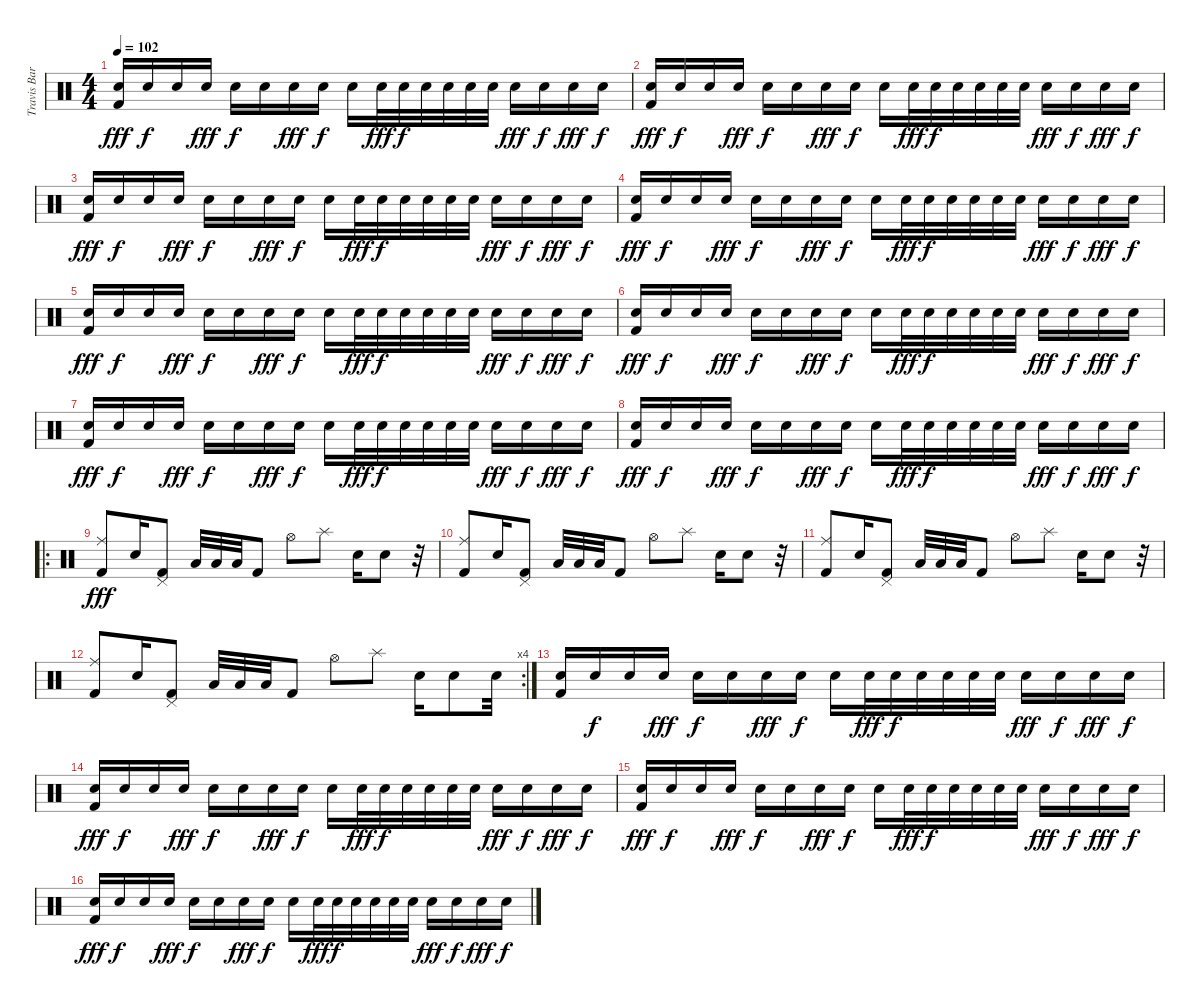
\track ("Travis Barker" "Travis Bar") {instrument percussion}
\staff {score}
\articulation defaults
\ts (4 4)
\tempo 102
\clef neutral
\ks c
("Electric Snare (hit)" "Kick (hit) 2").16{dy fff} "Electric Snare (hit)".16{dy f} "Electric Snare (hit)".16 "Electric Snare (hit)".16{dy fff} "Electric Snare (hit)".16{dy f} "Electric Snare (hit)".16 "Electric Snare (hit)".16{dy fff} "Electric Snare (hit)".16{dy f} "Electric Snare (hit)".16 "Electric Snare (hit)".32{dy fff} "Electric Snare (hit)".32{dy f} "Electric Snare (hit)".32 "Electric Snare (hit)".32 "Electric Snare (hit)".32 "Electric Snare (hit)".32 "Electric Snare (hit)".16{dy fff} "Electric Snare (hit)".16{dy f} "Electric Snare (hit)".16{dy fff} "Electric Snare (hit)".16{dy f} |
("Electric Snare (hit)" "Kick (hit) 2").16{dy fff} "Electric Snare (hit)".16{dy f} "Electric Snare (hit)".16 "Electric Snare (hit)".16{dy fff} "Electric Snare (hit)".16{dy f} "Electric Snare (hit)".16 "Electric Snare (hit)".16{dy fff} "Electric Snare (hit)".16{dy f} "Electric Snare (hit)".16 "Electric Snare (hit)".32{dy fff} "Electric Snare (hit)".32{dy f} "Electric Snare (hit)".32 "Electric Snare (hit)".32 "Electric Snare (hit)".32 "Electric Snare (hit)".32 "Electric Snare (hit)".16{dy fff} "Electric Snare (hit)".16{dy f} "Electric Snare (hit)".16{dy fff} "Electric Snare (hit)".16{dy f} |
("Electric Snare (hit)" "Kick (hit) 2").16{dy fff} "Electric Snare (hit)".16{dy f} "Electric Snare (hit)".16 "Electric Snare (hit)".16{dy fff} "Electric Snare (hit)".16{dy f} "Electric Snare (hit)".16 "Electric Snare (hit)".16{dy fff} "Electric Snare (hit)".16{dy f} "Electric Snare (hit)".16 "Electric Snare (hit)".32{dy fff} "Electric Snare (hit)".32{dy f} "Electric Snare (hit)".32 "Electric Snare (hit)".32 "Electric Snare (hit)".32 "Electric Snare (hit)".32 "Electric Snare (hit)".16{dy fff} "Electric Snare (hit)".16{dy f} "Electric Snare (hit)".16{dy fff} "Electric Snare (hit)".16{dy f} |
("Electric Snare (hit)" "Kick (hit) 2").16{dy fff} "Electric Snare (hit)".16{dy f} "Electric Snare (hit)".16 "Electric Snare (hit)".16{dy fff} "Electric Snare (hit)".16{dy f} "Electric Snare (hit)".16 "Electric Snare (hit)".16{dy fff} "Electric Snare (hit)".16{dy f} "Electric Snare (hit)".16 "Electric Snare (hit)".32{dy fff} "Electric Snare (hit)".32{dy f} "Electric Snare (hit)".32 "Electric Snare (hit)".32 "Electric Snare (hit)".32 "Electric Snare (hit)".32 "Electric Snare (hit)".16{dy fff} "Electric Snare (hit)".16{dy f} "Electric Snare (hit)".16{dy fff} "Electric Snare (hit)".16{dy f} |
("Electric Snare (hit)" "Kick (hit) 2").16{dy fff} "Electric Snare (hit)".16{dy f} "Electric Snare (hit)".16 "Electric Snare (hit)".16{dy fff} "Electric Snare (hit)".16{dy f} "Electric Snare (hit)".16 "Electric Snare (hit)".16{dy fff} "Electric Snare (hit)".16{dy f} "Electric Snare (hit)".16 "Electric Snare (hit)".32{dy fff} "Electric Snare (hit)".32{dy f} "Electric Snare (hit)".32 "Electric Snare (hit)".32 "Electric Snare (hit)".32 "Electric Snare (hit)".32 "Electric Snare (hit)".16{dy fff} "Electric Snare (hit)".16{dy f} "Electric Snare (hit)".16{dy fff} "Electric Snare (hit)".16{dy f} |
("Electric Snare (hit)" "Kick (hit) 2").16{dy fff} "Electric Snare (hit)".16{dy f} "Electric Snare (hit)".16 "Electric Snare (hit)".16{dy fff} "Electric Snare (hit)".16{dy f} "Electric Snare (hit)".16 "Electric Snare (hit)".16{dy fff} "Electric Snare (hit)".16{dy f} "Electric Snare (hit)".16 "Electric Snare (hit)".32{dy fff} "Electric Snare (hit)".32{dy f} "Electric Snare (hit)".32 "Electric Snare (hit)".32 "Electric Snare (hit)".32 "Electric Snare (hit)".32 "Electric Snare (hit)".16{dy fff} "Electric Snare (hit)".16{dy f} "Electric Snare (hit)".16{dy fff} "Electric Snare (hit)".16{dy f} |
("Electric Snare (hit)" "Kick (hit) 2").16{dy fff} "Electric Snare (hit)".16{dy f} "Electric Snare (hit)".16 "Electric Snare (hit)".16{dy fff} "Electric Snare (hit)".16{dy f} "Electric Snare (hit)".16 "Electric Snare (hit)".16{dy fff} "Electric Snare (hit)".16{dy f} "Electric Snare (hit)".16 "Electric Snare (hit)".32{dy fff} "Electric Snare (hit)".32{dy f} "Electric Snare (hit)".32 "Electric Snare (hit)".32 "Electric Snare (hit)".32 "Electric Snare (hit)".32 "Electric Snare (hit)".16{dy fff} "Electric Snare (hit)".16{dy f} "Electric Snare (hit)".16{dy fff} "Electric Snare (hit)".16{dy f} |
("Electric Snare (hit)" "Kick (hit) 2").16{dy fff} "Electric Snare (hit)".16{dy f} "Electric Snare (hit)".16 "Electric Snare (hit)".16{dy fff} "Electric Snare (hit)".16{dy f} "Electric Snare (hit)".16 "Electric Snare (hit)".16{dy fff} "Electric Snare (hit)".16{dy f} "Electric Snare (hit)".16 "Electric Snare (hit)".32{dy fff} "Electric Snare (hit)".32{dy f} "Electric Snare (hit)".32 "Electric Snare (hit)".32 "Electric Snare (hit)".32 "Electric Snare (hit)".32 "Electric Snare (hit)".16{dy fff} "Electric Snare (hit)".16{dy f} "Electric Snare (hit)".16{dy fff} "Electric Snare (hit)".16{dy f} |
\ro
("Ride (middle)" "Kick (hit) 2").8{dy fff} "Electric Snare (hit)".16 ("Pedal Hi-Hat (hit)" "Kick (hit) 2").8 "Low Tom (hit)".32 "Low Tom (hit)".32 "Low Tom (hit)".32 "Kick (hit) 2".8 "Hi-Hat (open)".8 "Splash (hit)".8 "Electric Snare (hit)".16 "Electric Snare (hit)".8 r.32 |
("Ride (middle)" "Kick (hit) 2").8 "Electric Snare (hit)".16 ("Pedal Hi-Hat (hit)" "Kick (hit) 2").8 "Low Tom (hit)".32 "Low Tom (hit)".32 "Low Tom (hit)".32 "Kick (hit) 2".8 "Hi-Hat (open)".8 "Splash (hit)".8 "Electric Snare (hit)".16 "Electric Snare (hit)".8 r.32 |
("Ride (middle)" "Kick (hit) 2").8 "Electric Snare (hit)".16 ("Pedal Hi-Hat (hit)" "Kick (hit) 2").8 "Low Tom (hit)".32 "Low Tom (hit)".32 "Low Tom (hit)".32 "Kick (hit) 2".8 "Hi-Hat (open)".8 "Splash (hit)".8 "Electric Snare (hit)".16 "Electric Snare (hit)".8 r.32 |
\rc 4
("Ride (middle)" "Kick (hit) 2").8 "Electric Snare (hit)".16 ("Pedal Hi-Hat (hit)" "Kick (hit) 2").8 "Low Tom (hit)".32 "Low Tom (hit)".32 "Low Tom (hit)".32 "Kick (hit) 2".8 "Hi-Hat (open)".8 "Splash (hit)".8 "Electric Snare (hit)".16 "Electric Snare (hit)".8 "Electric Snare (hit)".32 |
("Electric Snare (hit)" "Kick (hit) 2").16 "Electric Snare (hit)".16{dy f} "Electric Snare (hit)".16 "Electric Snare (hit)".16{dy fff} "Electric Snare (hit)".16{dy f} "Electric Snare (hit)".16 "Electric Snare (hit)".16{dy fff} "Electric Snare (hit)".16{dy f} "Electric Snare (hit)".16 "Electric Snare (hit)".32{dy fff} "Electric Snare (hit)".32{dy f} "Electric Snare (hit)".32 "Electric Snare (hit)".32 "Electric Snare (hit)".32 "Electric Snare (hit)".32 "Electric Snare (hit)".16{dy fff} "Electric Snare (hit)".16{dy f} "Electric Snare (hit)".16{dy fff} "Electric Snare (hit)".16{dy f} |
("Electric Snare (hit)" "Kick (hit) 2").16{dy fff} "Electric Snare (hit)".16{dy f} "Electric Snare (hit)".16 "Electric Snare (hit)".16{dy fff} "Electric Snare (hit)".16{dy f} "Electric Snare (hit)".16 "Electric Snare (hit)".16{dy fff} "Electric Snare (hit)".16{dy f} "Electric Snare (hit)".16 "Electric Snare (hit)".32{dy fff} "Electric Snare (hit)".32{dy f} "Electric Snare (hit)".32 "Electric Snare (hit)".32 "Electric Snare (hit)".32 "Electric Snare (hit)".32 "Electric Snare (hit)".16{dy fff} "Electric Snare (hit)".16{dy f} "Electric Snare (hit)".16{dy fff} "Electric Snare (hit)".16{dy f} |
("Electric Snare (hit)" "Kick (hit) 2").16{dy fff} "Electric Snare (hit)".16{dy f} "Electric Snare (hit)".16 "Electric Snare (hit)".16{dy fff} "Electric Snare (hit)".16{dy f} "Electric Snare (hit)".16 "Electric Snare (hit)".16{dy fff} "Electric Snare (hit)".16{dy f} "Electric Snare (hit)".16 "Electric Snare (hit)".32{dy fff} "Electric Snare (hit)".32{dy f} "Electric Snare (hit)".32 "Electric Snare (hit)".32 "Electric Snare (hit)".32 "Electric Snare (hit)".32 "Electric Snare (hit)".16{dy fff} "Electric Snare (hit)".16{dy f} "Electric Snare (hit)".16{dy fff} "Electric Snare (hit)".16{dy f} |
("Electric Snare (hit)" "Kick (hit) 2").16{dy fff} "Electric Snare (hit)".16{dy f} "Electric Snare (hit)".16 "Electric Snare (hit)".16{dy fff} "Electric Snare (hit)".16{dy f} "Electric Snare (hit)".16 "Electric Snare (hit)".16{dy fff} "Electric Snare (hit)".16{dy f} "Electric Snare (hit)".16 "Electric Snare (hit)".32{dy fff} "Electric Snare (hit)".32{dy f} "Electric Snare (hit)".32 "Electric Snare (hit)".32 "Electric Snare (hit)".32 "Electric Snare (hit)".32 "Electric Snare (hit)".16{dy fff} "Electric Snare (hit)".16{dy f} "Electric Snare (hit)".16{dy fff} "Electric Snare (hit)".16{dy f}
